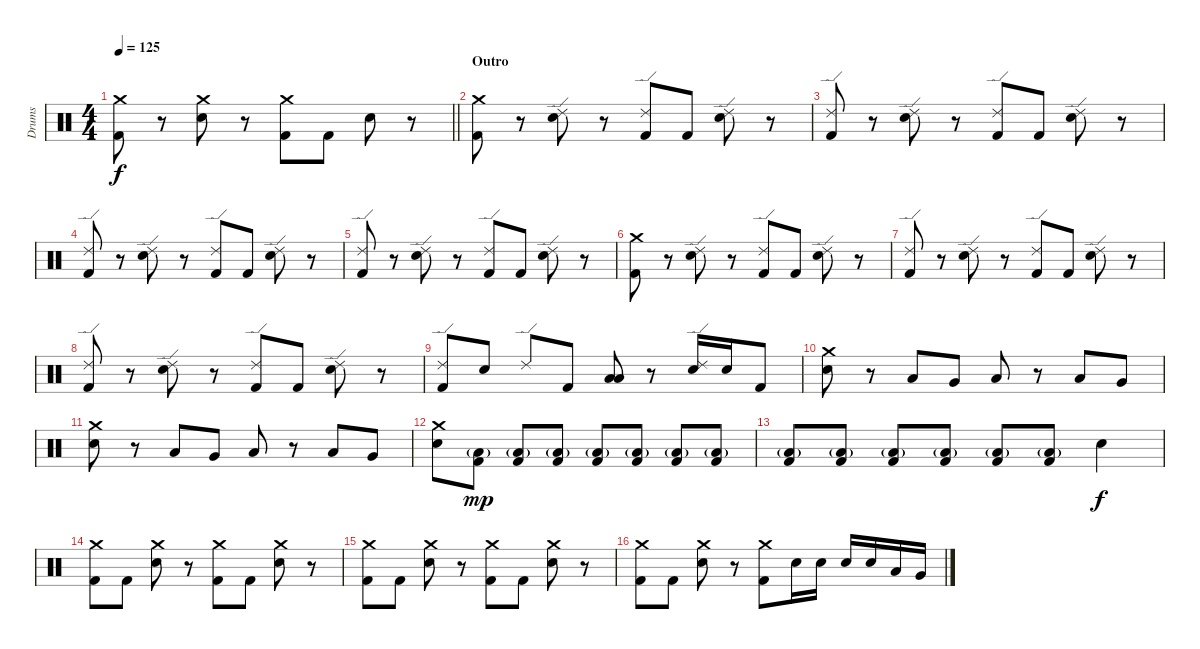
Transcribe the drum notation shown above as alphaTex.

\track ("Drums" "Drums") {instrument percussion}
\staff {score}
\articulation defaults
\ts (4 4)
\tempo 125
\clef neutral
\barLineRight lightlight
\ks c
("Crash medium (hit)" "Kick (hit) 2").8{dy f} r.8 ("Crash medium (hit)" "Electric Snare (hit)").8 r.8 ("Crash medium (hit)" "Kick (hit) 2").8 "Kick (hit) 2".8 "Electric Snare (hit)".8 r.8 |
\section ("" "Outro")
("Crash medium (hit)" "Kick (hit) 2").8 r.8 ("Ride (edge) 2" "Electric Snare (hit)").8 r.8 ("Ride (edge) 2" "Kick (hit) 2").8 "Kick (hit) 2".8 ("Ride (edge) 2" "Electric Snare (hit)").8 r.8 |
("Ride (edge) 2" "Kick (hit) 2").8 r.8 ("Ride (edge) 2" "Electric Snare (hit)").8 r.8 ("Ride (edge) 2" "Kick (hit) 2").8 "Kick (hit) 2".8 ("Ride (edge) 2" "Electric Snare (hit)").8 r.8 |
("Ride (edge) 2" "Kick (hit) 2").8 r.8 ("Ride (edge) 2" "Electric Snare (hit)").8 r.8 ("Ride (edge) 2" "Kick (hit) 2").8 "Kick (hit) 2".8 ("Ride (edge) 2" "Electric Snare (hit)").8 r.8 |
("Ride (edge) 2" "Kick (hit) 2").8 r.8 ("Ride (edge) 2" "Electric Snare (hit)").8 r.8 ("Ride (edge) 2" "Kick (hit) 2").8 "Kick (hit) 2".8 ("Ride (edge) 2" "Electric Snare (hit)").8 r.8 |
("Crash medium (hit)" "Kick (hit) 2").8 r.8 ("Ride (edge) 2" "Electric Snare (hit)").8 r.8 ("Ride (edge) 2" "Kick (hit) 2").8 "Kick (hit) 2".8 ("Ride (edge) 2" "Electric Snare (hit)").8 r.8 |
("Ride (edge) 2" "Kick (hit) 2").8 r.8 ("Ride (edge) 2" "Electric Snare (hit)").8 r.8 ("Ride (edge) 2" "Kick (hit) 2").8 "Kick (hit) 2".8 ("Ride (edge) 2" "Electric Snare (hit)").8 r.8 |
("Ride (edge) 2" "Kick (hit) 2").8 r.8 ("Ride (edge) 2" "Electric Snare (hit)").8 r.8 ("Ride (edge) 2" "Kick (hit) 2").8 "Kick (hit) 2".8 ("Ride (edge) 2" "Electric Snare (hit)").8 r.8 |
("Ride (edge) 2" "Kick (hit) 2").8 "Electric Snare (hit)".8 "Ride (edge) 2".8 "Kick (hit) 2".8 ("Low Tom (hit)" "Low Tom (hit)").8 r.8 ("Ride (edge) 2" "Electric Snare (hit)").16 "Electric Snare (hit)".16 "Kick (hit) 2".8 |
("Crash medium (hit)" "Electric Snare (hit)").8 r.8 "Low Tom (hit)".8 "Very Low Tom (hit)".8 "Low Tom (hit)".8 r.8 "Low Tom (hit)".8 "Very Low Tom (hit)".8 |
("Crash medium (hit)" "Electric Snare (hit)").8 r.8 "Low Tom (hit)".8 "Very Low Tom (hit)".8 "Low Tom (hit)".8 r.8 "Low Tom (hit)".8 "Very Low Tom (hit)".8 |
("Crash medium (hit)" "Electric Snare (hit)").8 ("Low Floor Tom (hit)"{g} "Kick (hit) 2").8{dy mp} ("Low Floor Tom (hit)"{g} "Kick (hit) 2").8 ("Low Floor Tom (hit)"{g} "Kick (hit) 2").8 ("Low Floor Tom (hit)"{g} "Kick (hit) 2").8 ("Low Floor Tom (hit)"{g} "Kick (hit) 2").8 ("Low Floor Tom (hit)"{g} "Kick (hit) 2").8 ("Low Floor Tom (hit)"{g} "Kick (hit) 2").8 |
("Low Floor Tom (hit)"{g} "Kick (hit) 2").8 ("Low Floor Tom (hit)"{g} "Kick (hit) 2").8 ("Low Floor Tom (hit)"{g} "Kick (hit) 2").8 ("Low Floor Tom (hit)"{g} "Kick (hit) 2").8 ("Low Floor Tom (hit)"{g} "Kick (hit) 2").8 ("Low Floor Tom (hit)"{g} "Kick (hit) 2").8 "Electric Snare (hit)".4{dy f} |
("Crash medium (hit)" "Kick (hit) 2").8 "Kick (hit) 2".8 ("Crash medium (hit)" "Electric Snare (hit)").8 r.8 ("Crash medium (hit)" "Kick (hit) 2").8 "Kick (hit) 2".8 ("Crash medium (hit)" "Electric Snare (hit)").8 r.8 |
("Crash medium (hit)" "Kick (hit) 2").8 "Kick (hit) 2".8 ("Crash medium (hit)" "Electric Snare (hit)").8 r.8 ("Crash medium (hit)" "Kick (hit) 2").8 "Kick (hit) 2".8 ("Crash medium (hit)" "Electric Snare (hit)").8 r.8 |
("Crash medium (hit)" "Kick (hit) 2").8 "Kick (hit) 2".8 ("Crash medium (hit)" "Electric Snare (hit)").8 r.8 ("Crash medium (hit)" "Kick (hit) 2").8 "Electric Snare (hit)".16 "Electric Snare (hit)".16 "Electric Snare (hit)".16 "Electric Snare (hit)".16 "Low Tom (hit)".16 "Very Low Tom (hit)".16
